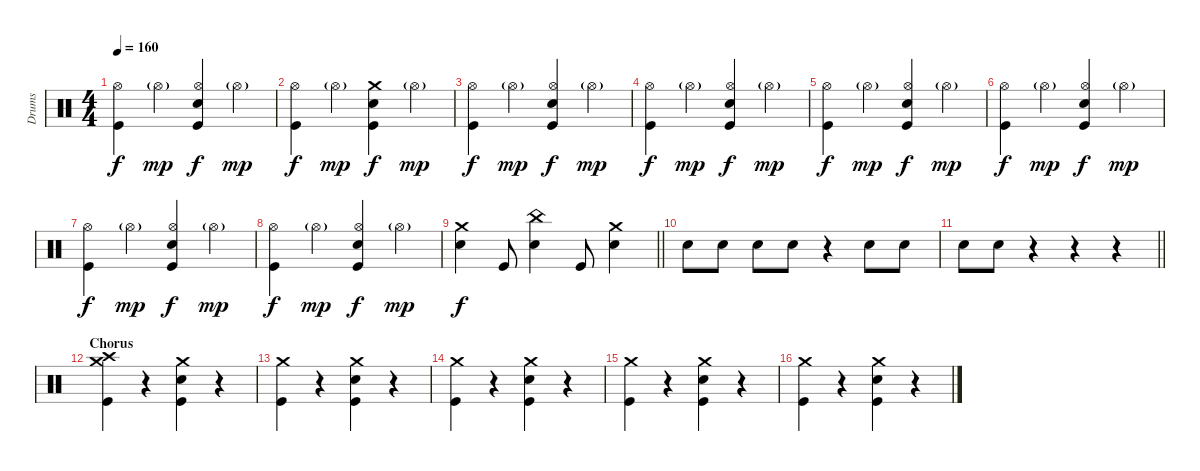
\track ("Drums" "Drums") {instrument percussion}
\staff {score}
\articulation defaults
\ts (4 4)
\tempo 160
\clef neutral
\ks c
("Kick (hit)" "Hi-Hat (open)").4{dy f} "Hi-Hat (open)"{g}.4{dy mp} ("Kick (hit)" "Electric Snare (hit)" "Hi-Hat (open)").4{dy f} "Hi-Hat (open)"{g}.4{dy mp} |
("Kick (hit)" "Hi-Hat (open)").4{dy f} "Hi-Hat (open)"{g}.4{dy mp} ("Kick (hit)" "Electric Snare (hit)" "Crash medium (hit)").4{dy f} "Hi-Hat (open)"{g}.4{dy mp} |
("Kick (hit)" "Hi-Hat (open)").4{dy f} "Hi-Hat (open)"{g}.4{dy mp} ("Kick (hit)" "Electric Snare (hit)" "Hi-Hat (open)").4{dy f} "Hi-Hat (open)"{g}.4{dy mp} |
("Kick (hit)" "Hi-Hat (open)").4{dy f} "Hi-Hat (open)"{g}.4{dy mp} ("Kick (hit)" "Electric Snare (hit)" "Hi-Hat (open)").4{dy f} "Hi-Hat (open)"{g}.4{dy mp} |
("Kick (hit)" "Hi-Hat (open)").4{dy f} "Hi-Hat (open)"{g}.4{dy mp} ("Kick (hit)" "Electric Snare (hit)" "Hi-Hat (open)").4{dy f} "Hi-Hat (open)"{g}.4{dy mp} |
("Kick (hit)" "Hi-Hat (open)").4{dy f} "Hi-Hat (open)"{g}.4{dy mp} ("Kick (hit)" "Electric Snare (hit)" "Hi-Hat (open)").4{dy f} "Hi-Hat (open)"{g}.4{dy mp} |
("Kick (hit)" "Hi-Hat (open)").4{dy f} "Hi-Hat (open)"{g}.4{dy mp} ("Kick (hit)" "Electric Snare (hit)" "Hi-Hat (open)").4{dy f} "Hi-Hat (open)"{g}.4{dy mp} |
("Kick (hit)" "Hi-Hat (open)").4{dy f} "Hi-Hat (open)"{g}.4{dy mp} ("Kick (hit)" "Electric Snare (hit)" "Hi-Hat (open)").4{dy f} "Hi-Hat (open)"{g}.4{dy mp} |
\barLineRight lightlight
("Electric Snare (hit)" "Crash medium (hit)").4{dy f} "Kick (hit)".8 ("Electric Snare (hit)" "China (hit)").4 "Kick (hit)".8 ("Electric Snare (hit)" "Crash medium (hit)").4 |
"Electric Snare (hit)".8 "Electric Snare (hit)".8 "Electric Snare (hit)".8 "Electric Snare (hit)".8 r.4 "Electric Snare (hit)".8 "Electric Snare (hit)".8 |
\barLineRight lightlight "Electric Snare (hit)".8 "Electric Snare (hit)".8
r.4 r.4 r.4 |
\section ("" "Chorus")
("Kick (hit)" "Crash high (hit)" "Crash medium (hit)").4 r.4 ("Kick (hit)" "Electric Snare (hit)" "Crash medium (hit)").4 r.4 |
("Kick (hit)" "Crash medium (hit)").4 r.4 ("Kick (hit)" "Electric Snare (hit)" "Crash medium (hit)").4 r.4 |
("Kick (hit)" "Crash medium (hit)").4 r.4 ("Kick (hit)" "Electric Snare (hit)" "Crash medium (hit)").4 r.4 |
("Kick (hit)" "Crash medium (hit)").4 r.4 ("Kick (hit)" "Electric Snare (hit)" "Crash medium (hit)").4 r.4 |
("Kick (hit)" "Crash medium (hit)").4 r.4 ("Kick (hit)" "Electric Snare (hit)" "Crash medium (hit)").4 r.4
